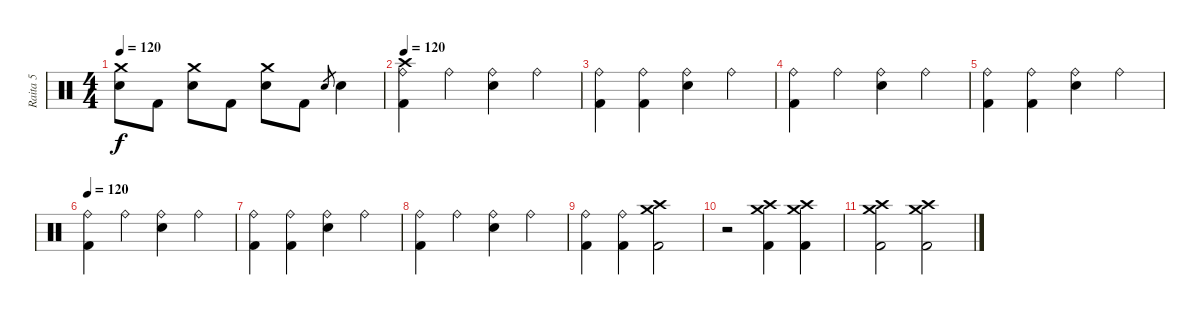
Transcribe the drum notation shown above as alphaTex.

\track ("Raita 5" "Raita 5") {instrument percussion}
\staff {score}
\articulation defaults
\ts (4 4)
\tempo 120
\clef neutral
\ks c
("Crash medium (hit)" "Snare (hit) 2").8{dy f} "Kick (hit) 2".8 ("Crash medium (hit)" "Snare (hit) 2").8 "Kick (hit) 2".8 ("Crash medium (hit)" "Snare (hit) 2").8 "Kick (hit) 2".8 "Snare (hit) 2".8{gr} "Snare (hit) 2".4 |
\tempo 120
("Crash high (hit)" "Ride (bell)" "Kick (hit) 2").4 "Ride (bell)".4 ("Ride (bell)" "Snare (hit) 2").4 "Ride (bell)".4 |
("Ride (bell)" "Kick (hit) 2").4 ("Ride (bell)" "Kick (hit) 2").4 ("Ride (bell)" "Snare (hit) 2").4 "Ride (bell)".4 |
("Ride (bell)" "Kick (hit) 2").4 "Ride (bell)".4 ("Ride (bell)" "Snare (hit) 2").4 "Ride (bell)".4 |
("Ride (bell)" "Kick (hit) 2").4 ("Ride (bell)" "Kick (hit) 2").4 ("Ride (bell)" "Snare (hit) 2").4 "Ride (bell)".4 |
\tempo 120
("Ride (bell)" "Kick (hit) 2").4 "Ride (bell)".4 ("Ride (bell)" "Snare (hit) 2").4 "Ride (bell)".4 |
("Ride (bell)" "Kick (hit) 2").4 ("Ride (bell)" "Kick (hit) 2").4 ("Ride (bell)" "Snare (hit) 2").4 "Ride (bell)".4 |
("Ride (bell)" "Kick (hit) 2").4 "Ride (bell)".4 ("Ride (bell)" "Snare (hit) 2").4 "Ride (bell)".4 |
("Ride (bell)" "Kick (hit) 2").4 ("Ride (bell)" "Kick (hit) 2").4 ("Crash medium (hit)" "Crash high (hit)" "Kick (hit) 2").2 |
r.2 ("Crash medium (hit)" "Crash high (hit)" "Kick (hit) 2").4 ("Crash medium (hit)" "Crash high (hit)" "Kick (hit) 2").4 |
("Crash medium (hit)" "Crash high (hit)" "Kick (hit) 2").2 ("Crash medium (hit)" "Crash high (hit)" "Kick (hit) 2").2
